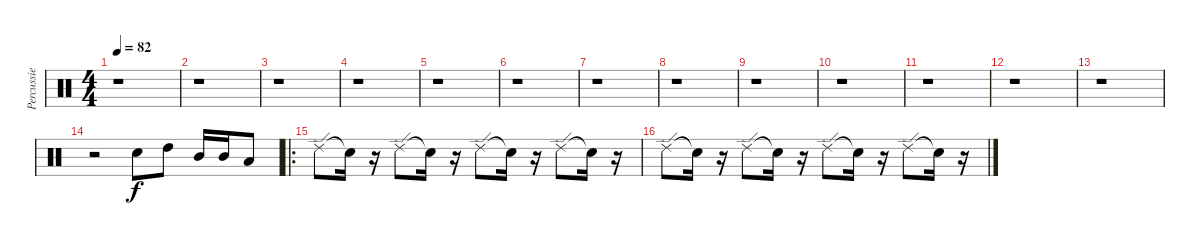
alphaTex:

\track ("Percussie" "Percussie") {instrument percussion}
\staff {score}
\articulation defaults
\ts (4 4)
\tempo 82
\clef neutral
\ks c
r.1{dy f} |
r.1 |
r.1 |
r.1 |
r.1 |
r.1 |
r.1 |
r.1 |
r.1 |
r.1 |
r.1 |
r.1 |
r.1 |
r.2 "Snare (hit) 2".8 "High Tom (hit)".8 "Mid Tom (hit)".16 "Mid Tom (hit)".16 "Low Tom (hit)".8 |
\ro "Ride (edge) 2".8 "Snare (hit)"{t}.16
r.16 "Ride (edge) 2".8 "Snare (hit)"{t}.16 r.16 "Ride (edge) 2".8 "Snare (hit)"{t}.16 r.16 "Ride (edge) 2".8 "Snare (hit)"{t}.16 r.16 |
"Ride (edge) 2".8 "Snare (hit)"{t}.16 r.16 "Ride (edge) 2".8 "Snare (hit)"{t}.16 r.16 "Ride (edge) 2".8 "Snare (hit)"{t}.16 r.16 "Ride (edge) 2".8 "Snare (hit)"{t}.16 r.16
